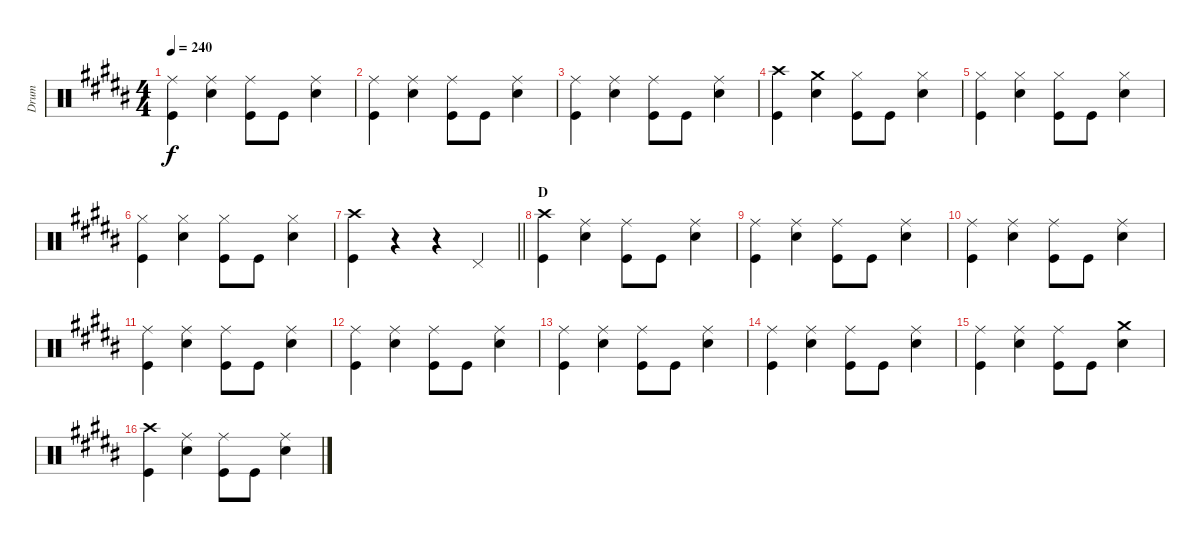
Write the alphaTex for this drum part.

\track ("Drum" "Drum") {instrument percussion}
\staff {score}
\articulation defaults
\ts (4 4)
\tempo 240
\clef neutral
\ks b
("Kick (hit)" "Ride (middle)").4{dy f} ("Ride (middle)" "Snare (hit) 2").4 ("Ride (middle)" "Kick (hit)").8 "Kick (hit)".8 ("Snare (hit) 2" "Ride (middle)").4 |
("Kick (hit)" "Ride (middle)").4 ("Ride (middle)" "Snare (hit) 2").4 ("Ride (middle)" "Kick (hit)").8 "Kick (hit)".8 ("Snare (hit) 2" "Ride (middle)").4 |
("Kick (hit)" "Ride (middle)").4 ("Ride (middle)" "Snare (hit) 2").4 ("Ride (middle)" "Kick (hit)").8 "Kick (hit)".8 ("Snare (hit) 2" "Ride (middle)").4 |
("Kick (hit)" "Crash high (hit)").4 ("Crash medium (hit)" "Snare (hit) 2").4 ("Hi-Hat (closed)" "Kick (hit)").8 "Kick (hit)".8 ("Snare (hit) 2" "Hi-Hat (closed)").4 |
("Hi-Hat (closed)" "Kick (hit)").4 ("Hi-Hat (closed)" "Snare (hit) 2").4 ("Hi-Hat (closed)" "Kick (hit)").8 "Kick (hit)".8 ("Snare (hit) 2" "Hi-Hat (closed)").4 |
("Hi-Hat (closed)" "Kick (hit)").4 ("Hi-Hat (closed)" "Snare (hit) 2").4 ("Hi-Hat (closed)" "Kick (hit)").8 "Kick (hit)".8 ("Snare (hit) 2" "Hi-Hat (closed)").4 |
\barLineRight lightlight
("Kick (hit)" "Crash high (hit)").4 r.4 r.4 "Pedal Hi-Hat (hit)".4 |
\section ("" "D")
("Kick (hit)" "Crash high (hit)").4 ("Ride (middle)" "Snare (hit) 2").4 ("Ride (middle)" "Kick (hit)").8 "Kick (hit)".8 ("Snare (hit) 2" "Ride (middle)").4 |
("Kick (hit)" "Ride (middle)").4 ("Ride (middle)" "Snare (hit) 2").4 ("Ride (middle)" "Kick (hit)").8 "Kick (hit)".8 ("Snare (hit) 2" "Ride (middle)").4 |
("Kick (hit)" "Ride (middle)").4 ("Ride (middle)" "Snare (hit) 2").4 ("Ride (middle)" "Kick (hit)").8 "Kick (hit)".8 ("Snare (hit) 2" "Ride (middle)").4 |
("Kick (hit)" "Ride (middle)").4 ("Ride (middle)" "Snare (hit) 2").4 ("Ride (middle)" "Kick (hit)").8 "Kick (hit)".8 ("Snare (hit) 2" "Ride (middle)").4 |
("Kick (hit)" "Ride (middle)").4 ("Ride (middle)" "Snare (hit) 2").4 ("Ride (middle)" "Kick (hit)").8 "Kick (hit)".8 ("Snare (hit) 2" "Ride (middle)").4 |
("Kick (hit)" "Ride (middle)").4 ("Ride (middle)" "Snare (hit) 2").4 ("Ride (middle)" "Kick (hit)").8 "Kick (hit)".8 ("Snare (hit) 2" "Ride (middle)").4 |
("Kick (hit)" "Ride (middle)").4 ("Ride (middle)" "Snare (hit) 2").4 ("Ride (middle)" "Kick (hit)").8 "Kick (hit)".8 ("Snare (hit) 2" "Ride (middle)").4 |
("Kick (hit)" "Ride (middle)").4 ("Ride (middle)" "Snare (hit) 2").4 ("Ride (middle)" "Kick (hit)").8 "Kick (hit)".8 ("Snare (hit) 2" "Crash medium (hit)").4 |
("Kick (hit)" "Crash high (hit)").4 ("Ride (middle)" "Snare (hit) 2").4 ("Ride (middle)" "Kick (hit)").8 "Kick (hit)".8 ("Snare (hit) 2" "Ride (middle)").4
